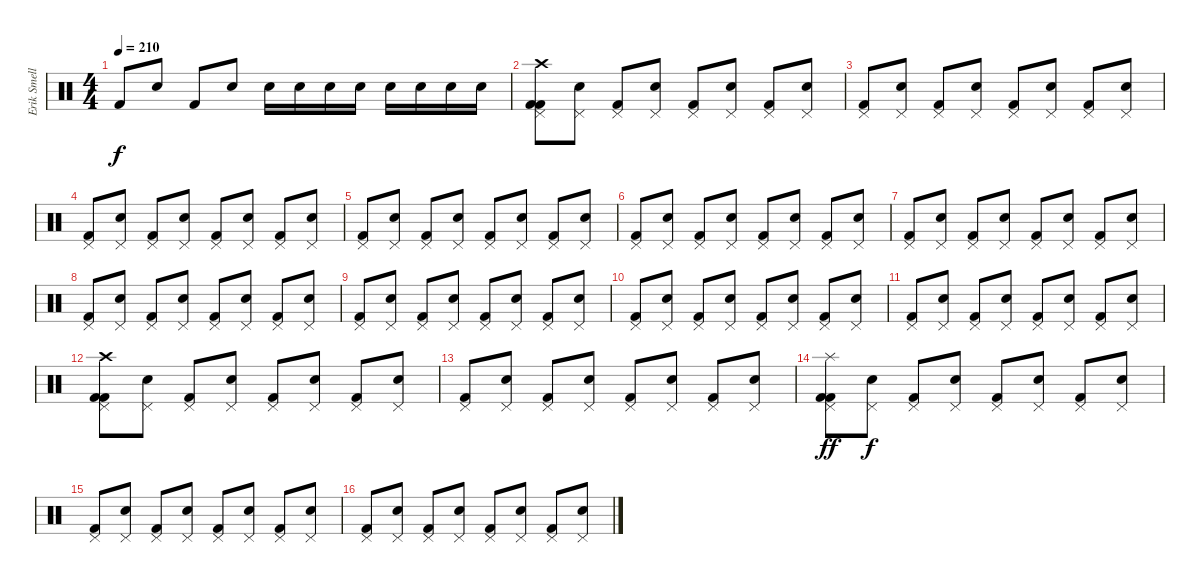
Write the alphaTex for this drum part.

\track ("Erik Smelly" "Erik Smell") {instrument percussion}
\staff {score}
\articulation defaults
\ts (4 4)
\tempo 210
\clef neutral
\ks c "Kick (hit) 2".8{dy f} "Electric Snare (hit)".8 "Kick (hit) 2".8 "Electric Snare (hit)".8 "Electric Snare (hit)".16 "Electric Snare (hit)".16 "Electric Snare (hit)".16 "Electric Snare (hit)".16 "Electric Snare (hit)".16 "Electric Snare (hit)".16 "Electric Snare (hit)".16 "Electric Snare (hit)".16
|
("Pedal Hi-Hat (hit)" "Kick (hit) 2" "Crash high (hit)" "Kick (hit) 2").8 ("Pedal Hi-Hat (hit)" "Electric Snare (hit)").8 ("Pedal Hi-Hat (hit)" "Kick (hit) 2").8 ("Pedal Hi-Hat (hit)" "Electric Snare (hit)").8 ("Pedal Hi-Hat (hit)" "Kick (hit) 2").8 ("Pedal Hi-Hat (hit)" "Electric Snare (hit)").8 ("Pedal Hi-Hat (hit)" "Kick (hit) 2").8 ("Pedal Hi-Hat (hit)" "Electric Snare (hit)").8 |
("Pedal Hi-Hat (hit)" "Kick (hit) 2").8 ("Pedal Hi-Hat (hit)" "Electric Snare (hit)").8 ("Pedal Hi-Hat (hit)" "Kick (hit) 2").8 ("Pedal Hi-Hat (hit)" "Electric Snare (hit)").8 ("Pedal Hi-Hat (hit)" "Kick (hit) 2").8 ("Pedal Hi-Hat (hit)" "Electric Snare (hit)").8 ("Pedal Hi-Hat (hit)" "Kick (hit) 2").8 ("Pedal Hi-Hat (hit)" "Electric Snare (hit)").8 |
("Pedal Hi-Hat (hit)" "Kick (hit) 2").8 ("Pedal Hi-Hat (hit)" "Electric Snare (hit)").8 ("Pedal Hi-Hat (hit)" "Kick (hit) 2").8 ("Pedal Hi-Hat (hit)" "Electric Snare (hit)").8 ("Pedal Hi-Hat (hit)" "Kick (hit) 2").8 ("Pedal Hi-Hat (hit)" "Electric Snare (hit)").8 ("Pedal Hi-Hat (hit)" "Kick (hit) 2").8 ("Pedal Hi-Hat (hit)" "Electric Snare (hit)").8 |
("Pedal Hi-Hat (hit)" "Kick (hit) 2").8 ("Pedal Hi-Hat (hit)" "Electric Snare (hit)").8 ("Pedal Hi-Hat (hit)" "Kick (hit) 2").8 ("Pedal Hi-Hat (hit)" "Electric Snare (hit)").8 ("Pedal Hi-Hat (hit)" "Kick (hit) 2").8 ("Pedal Hi-Hat (hit)" "Electric Snare (hit)").8 ("Pedal Hi-Hat (hit)" "Kick (hit) 2").8 ("Pedal Hi-Hat (hit)" "Electric Snare (hit)").8 |
("Pedal Hi-Hat (hit)" "Kick (hit) 2").8 ("Pedal Hi-Hat (hit)" "Electric Snare (hit)").8 ("Pedal Hi-Hat (hit)" "Kick (hit) 2").8 ("Pedal Hi-Hat (hit)" "Electric Snare (hit)").8 ("Pedal Hi-Hat (hit)" "Kick (hit) 2").8 ("Pedal Hi-Hat (hit)" "Electric Snare (hit)").8 ("Pedal Hi-Hat (hit)" "Kick (hit) 2").8 ("Pedal Hi-Hat (hit)" "Electric Snare (hit)").8 |
("Pedal Hi-Hat (hit)" "Kick (hit) 2").8 ("Pedal Hi-Hat (hit)" "Electric Snare (hit)").8 ("Pedal Hi-Hat (hit)" "Kick (hit) 2").8 ("Pedal Hi-Hat (hit)" "Electric Snare (hit)").8 ("Pedal Hi-Hat (hit)" "Kick (hit) 2").8 ("Pedal Hi-Hat (hit)" "Electric Snare (hit)").8 ("Pedal Hi-Hat (hit)" "Kick (hit) 2").8 ("Pedal Hi-Hat (hit)" "Electric Snare (hit)").8 |
("Pedal Hi-Hat (hit)" "Kick (hit) 2").8 ("Pedal Hi-Hat (hit)" "Electric Snare (hit)").8 ("Pedal Hi-Hat (hit)" "Kick (hit) 2").8 ("Pedal Hi-Hat (hit)" "Electric Snare (hit)").8 ("Pedal Hi-Hat (hit)" "Kick (hit) 2").8 ("Pedal Hi-Hat (hit)" "Electric Snare (hit)").8 ("Pedal Hi-Hat (hit)" "Kick (hit) 2").8 ("Pedal Hi-Hat (hit)" "Electric Snare (hit)").8 |
("Pedal Hi-Hat (hit)" "Kick (hit) 2").8 ("Pedal Hi-Hat (hit)" "Electric Snare (hit)").8 ("Pedal Hi-Hat (hit)" "Kick (hit) 2").8 ("Pedal Hi-Hat (hit)" "Electric Snare (hit)").8 ("Pedal Hi-Hat (hit)" "Kick (hit) 2").8 ("Pedal Hi-Hat (hit)" "Electric Snare (hit)").8 ("Pedal Hi-Hat (hit)" "Kick (hit) 2").8 ("Pedal Hi-Hat (hit)" "Electric Snare (hit)").8 |
("Pedal Hi-Hat (hit)" "Kick (hit) 2").8 ("Pedal Hi-Hat (hit)" "Electric Snare (hit)").8 ("Pedal Hi-Hat (hit)" "Kick (hit) 2").8 ("Pedal Hi-Hat (hit)" "Electric Snare (hit)").8 ("Pedal Hi-Hat (hit)" "Kick (hit) 2").8 ("Pedal Hi-Hat (hit)" "Electric Snare (hit)").8 ("Pedal Hi-Hat (hit)" "Kick (hit) 2").8 ("Pedal Hi-Hat (hit)" "Electric Snare (hit)").8 |
("Pedal Hi-Hat (hit)" "Kick (hit) 2").8 ("Pedal Hi-Hat (hit)" "Electric Snare (hit)").8 ("Pedal Hi-Hat (hit)" "Kick (hit) 2").8 ("Pedal Hi-Hat (hit)" "Electric Snare (hit)").8 ("Pedal Hi-Hat (hit)" "Kick (hit) 2").8 ("Pedal Hi-Hat (hit)" "Electric Snare (hit)").8 ("Pedal Hi-Hat (hit)" "Kick (hit) 2").8 ("Pedal Hi-Hat (hit)" "Electric Snare (hit)").8 |
("Pedal Hi-Hat (hit)" "Kick (hit) 2" "Crash high (hit)" "Kick (hit) 2").8 ("Pedal Hi-Hat (hit)" "Electric Snare (hit)").8 ("Pedal Hi-Hat (hit)" "Kick (hit) 2").8 ("Pedal Hi-Hat (hit)" "Electric Snare (hit)").8 ("Pedal Hi-Hat (hit)" "Kick (hit) 2").8 ("Pedal Hi-Hat (hit)" "Electric Snare (hit)").8 ("Pedal Hi-Hat (hit)" "Kick (hit) 2").8 ("Pedal Hi-Hat (hit)" "Electric Snare (hit)").8 |
("Pedal Hi-Hat (hit)" "Kick (hit) 2").8 ("Pedal Hi-Hat (hit)" "Electric Snare (hit)").8 ("Pedal Hi-Hat (hit)" "Kick (hit) 2").8 ("Pedal Hi-Hat (hit)" "Electric Snare (hit)").8 ("Pedal Hi-Hat (hit)" "Kick (hit) 2").8 ("Pedal Hi-Hat (hit)" "Electric Snare (hit)").8 ("Pedal Hi-Hat (hit)" "Kick (hit) 2").8 ("Pedal Hi-Hat (hit)" "Electric Snare (hit)").8 |
("Kick (hit) 2" "Splash (hit)" "Pedal Hi-Hat (hit)" "Kick (hit) 2").8{dy ff} ("Pedal Hi-Hat (hit)" "Electric Snare (hit)").8{dy f} ("Pedal Hi-Hat (hit)" "Kick (hit) 2").8 ("Pedal Hi-Hat (hit)" "Electric Snare (hit)").8 ("Pedal Hi-Hat (hit)" "Kick (hit) 2").8 ("Pedal Hi-Hat (hit)" "Electric Snare (hit)").8 ("Pedal Hi-Hat (hit)" "Kick (hit) 2").8 ("Pedal Hi-Hat (hit)" "Electric Snare (hit)").8 |
("Pedal Hi-Hat (hit)" "Kick (hit) 2").8 ("Pedal Hi-Hat (hit)" "Electric Snare (hit)").8 ("Pedal Hi-Hat (hit)" "Kick (hit) 2").8 ("Pedal Hi-Hat (hit)" "Electric Snare (hit)").8 ("Pedal Hi-Hat (hit)" "Kick (hit) 2").8 ("Pedal Hi-Hat (hit)" "Electric Snare (hit)").8 ("Pedal Hi-Hat (hit)" "Kick (hit) 2").8 ("Pedal Hi-Hat (hit)" "Electric Snare (hit)").8 |
("Pedal Hi-Hat (hit)" "Kick (hit) 2").8 ("Pedal Hi-Hat (hit)" "Electric Snare (hit)").8 ("Pedal Hi-Hat (hit)" "Kick (hit) 2").8 ("Pedal Hi-Hat (hit)" "Electric Snare (hit)").8 ("Pedal Hi-Hat (hit)" "Kick (hit) 2").8 ("Pedal Hi-Hat (hit)" "Electric Snare (hit)").8 ("Pedal Hi-Hat (hit)" "Kick (hit) 2").8 ("Pedal Hi-Hat (hit)" "Electric Snare (hit)").8
